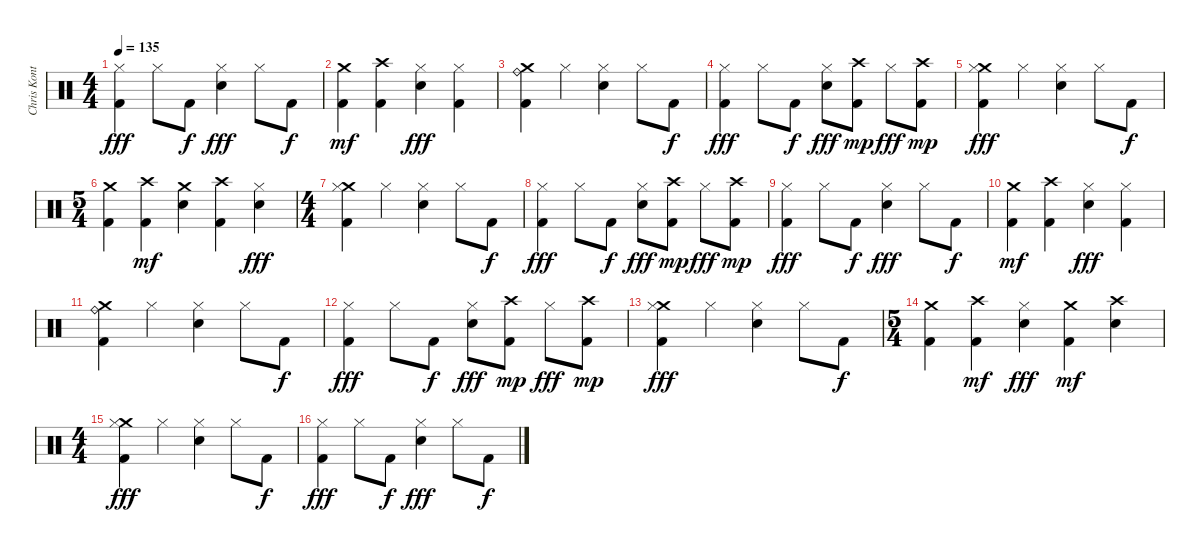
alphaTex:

\track ("Chris Kontos" "Chris Kont") {instrument percussion}
\staff {score}
\articulation defaults
\ts (4 4)
\tempo 135
\clef neutral
\ks c
("Hi-Hat (closed)" "Kick (hit) 2").4{dy fff} "Hi-Hat (closed)".8 "Kick (hit) 2".8{dy f} ("Electric Snare (hit)" "Hi-Hat (closed)").4{dy fff} "Hi-Hat (closed)".8 "Kick (hit) 2".8{dy f} |
("Crash medium (hit)" "Kick (hit) 2").4{dy mf} ("Crash high (hit)" "Kick (hit) 2").4 ("Electric Snare (hit)" "Hi-Hat (closed)").4{dy fff} ("Hi-Hat (closed)" "Kick (hit) 2").4 |
("Crash medium (hit)" "Ride (bell)" "Kick (hit) 2").4 "Hi-Hat (closed)".4 ("Electric Snare (hit)" "Hi-Hat (closed)").4 "Hi-Hat (closed)".8 "Kick (hit) 2".8{dy f} |
("Hi-Hat (closed)" "Kick (hit) 2").4{dy fff} "Hi-Hat (closed)".8 "Kick (hit) 2".8{dy f} ("Electric Snare (hit)" "Hi-Hat (closed)").8{dy fff} ("Crash high (hit)" "Kick (hit) 2").8{dy mp} "Hi-Hat (closed)".8{dy fff} ("Crash high (hit)" "Kick (hit) 2").8{dy mp} |
("Crash medium (hit)" "Hi-Hat (closed)" "Kick (hit) 2").4{dy fff} "Hi-Hat (closed)".4 ("Electric Snare (hit)" "Hi-Hat (closed)").4 "Hi-Hat (closed)".8 "Kick (hit) 2".8{dy f} |
\ts (5 4)
("Crash medium (hit)" "Kick (hit) 2").4 ("Crash high (hit)" "Kick (hit) 2").4{dy mf} ("Crash medium (hit)" "Electric Snare (hit)").4 ("Crash high (hit)" "Kick (hit) 2").4 ("Electric Snare (hit)" "Hi-Hat (closed)").4{dy fff} |
\ts (4 4)
("Crash medium (hit)" "Hi-Hat (closed)" "Kick (hit) 2").4 "Hi-Hat (closed)".4 ("Electric Snare (hit)" "Hi-Hat (closed)").4 "Hi-Hat (closed)".8 "Kick (hit) 2".8{dy f} |
("Hi-Hat (closed)" "Kick (hit) 2").4{dy fff} "Hi-Hat (closed)".8 "Kick (hit) 2".8{dy f} ("Electric Snare (hit)" "Hi-Hat (closed)").8{dy fff} ("Crash high (hit)" "Kick (hit) 2").8{dy mp} "Hi-Hat (closed)".8{dy fff} ("Crash high (hit)" "Kick (hit) 2").8{dy mp} |
("Hi-Hat (closed)" "Kick (hit) 2").4{dy fff} "Hi-Hat (closed)".8 "Kick (hit) 2".8{dy f} ("Electric Snare (hit)" "Hi-Hat (closed)").4{dy fff} "Hi-Hat (closed)".8 "Kick (hit) 2".8{dy f} |
("Crash medium (hit)" "Kick (hit) 2").4{dy mf} ("Crash high (hit)" "Kick (hit) 2").4 ("Electric Snare (hit)" "Hi-Hat (closed)").4{dy fff} ("Hi-Hat (closed)" "Kick (hit) 2").4 |
("Crash medium (hit)" "Ride (bell)" "Kick (hit) 2").4 "Hi-Hat (closed)".4 ("Electric Snare (hit)" "Hi-Hat (closed)").4 "Hi-Hat (closed)".8 "Kick (hit) 2".8{dy f} |
("Hi-Hat (closed)" "Kick (hit) 2").4{dy fff} "Hi-Hat (closed)".8 "Kick (hit) 2".8{dy f} ("Electric Snare (hit)" "Hi-Hat (closed)").8{dy fff} ("Crash high (hit)" "Kick (hit) 2").8{dy mp} "Hi-Hat (closed)".8{dy fff} ("Crash high (hit)" "Kick (hit) 2").8{dy mp} |
("Crash medium (hit)" "Hi-Hat (closed)" "Kick (hit) 2").4{dy fff} "Hi-Hat (closed)".4 ("Electric Snare (hit)" "Hi-Hat (closed)").4 "Hi-Hat (closed)".8 "Kick (hit) 2".8{dy f} |
\ts (5 4)
("Crash medium (hit)" "Kick (hit) 2").4 ("Crash high (hit)" "Kick (hit) 2").4{dy mf} ("Electric Snare (hit)" "Hi-Hat (closed)").4{dy fff} ("Crash medium (hit)" "Kick (hit) 2").4{dy mf} ("Crash high (hit)" "Electric Snare (hit)").4 |
\ts (4 4)
("Crash medium (hit)" "Hi-Hat (closed)" "Kick (hit) 2").4{dy fff} "Hi-Hat (closed)".4 ("Electric Snare (hit)" "Hi-Hat (closed)").4 "Hi-Hat (closed)".8 "Kick (hit) 2".8{dy f} |
("Hi-Hat (closed)" "Kick (hit) 2").4{dy fff} "Hi-Hat (closed)".8 "Kick (hit) 2".8{dy f} ("Electric Snare (hit)" "Hi-Hat (closed)").4{dy fff} "Hi-Hat (closed)".8 "Kick (hit) 2".8{dy f}
